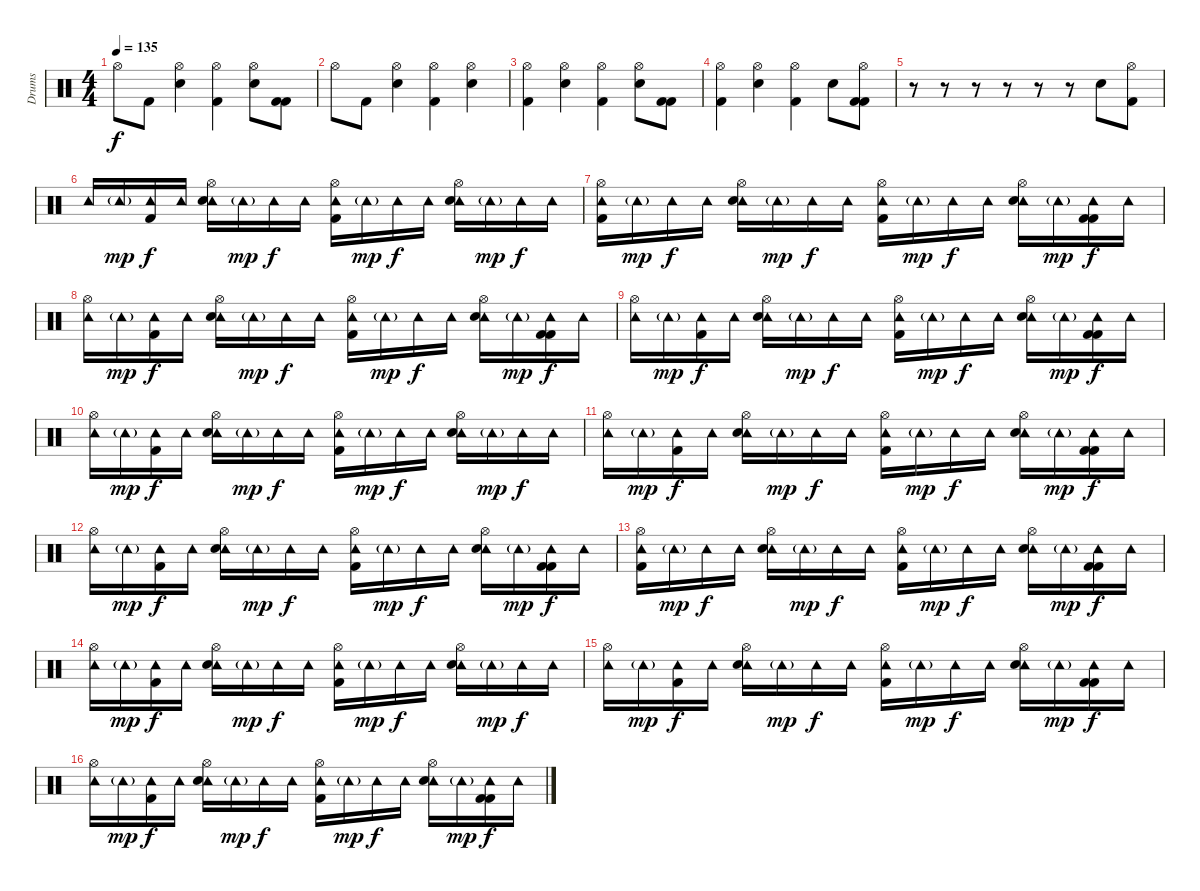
\track ("Drums" "Drums") {instrument percussion}
\staff {score}
\articulation defaults
\ts (4 4)
\tempo 135
\clef neutral
\ks c "Hi-Hat (open)".8{dy f} "Kick (hit) 2".8
("Hi-Hat (open)" "Electric Snare (hit)").4 ("Hi-Hat (open)" "Kick (hit) 2").4 ("Hi-Hat (open)" "Electric Snare (hit)").8 ("Kick (hit) 2" "Kick (hit) 2").8 |
"Hi-Hat (open)".8 "Kick (hit) 2".8 ("Hi-Hat (open)" "Electric Snare (hit)").4 ("Hi-Hat (open)" "Kick (hit) 2").4 ("Hi-Hat (open)" "Electric Snare (hit)").4 |
("Hi-Hat (open)" "Kick (hit) 2").4 ("Hi-Hat (open)" "Electric Snare (hit)").4 ("Hi-Hat (open)" "Kick (hit) 2").4 ("Hi-Hat (open)" "Electric Snare (hit)").8 ("Kick (hit) 2" "Kick (hit) 2").8 |
("Hi-Hat (open)" "Kick (hit) 2").4 ("Hi-Hat (open)" "Electric Snare (hit)").4 ("Hi-Hat (open)" "Kick (hit) 2").4 "Electric Snare (hit)".8 ("Hi-Hat (open)" "Kick (hit) 2" "Kick (hit) 2").8 |
r.8 r.8 r.8 r.8 r.8 r.8 "Electric Snare (hit)".8 ("Hi-Hat (open)" "Kick (hit) 2").8 |
"Tambourine (hit)".16 "Tambourine (hit)"{g}.16{dy mp} ("Tambourine (hit)" "Kick (hit) 2").16{dy f} "Tambourine (hit)".16 ("Hi-Hat (open)" "Tambourine (hit)" "Electric Snare (hit)").16 "Tambourine (hit)"{g}.16{dy mp} "Tambourine (hit)".16{dy f} "Tambourine (hit)".16 ("Hi-Hat (open)" "Tambourine (hit)" "Kick (hit) 2").16 "Tambourine (hit)"{g}.16{dy mp} "Tambourine (hit)".16{dy f} "Tambourine (hit)".16 ("Hi-Hat (open)" "Tambourine (hit)" "Electric Snare (hit)").16 "Tambourine (hit)"{g}.16{dy mp} "Tambourine (hit)".16{dy f} "Tambourine (hit)".16 |
("Hi-Hat (open)" "Tambourine (hit)" "Kick (hit) 2").16 "Tambourine (hit)"{g}.16{dy mp} "Tambourine (hit)".16{dy f} "Tambourine (hit)".16 ("Hi-Hat (open)" "Tambourine (hit)" "Electric Snare (hit)").16 "Tambourine (hit)"{g}.16{dy mp} "Tambourine (hit)".16{dy f} "Tambourine (hit)".16 ("Hi-Hat (open)" "Tambourine (hit)" "Kick (hit) 2").16 "Tambourine (hit)"{g}.16{dy mp} "Tambourine (hit)".16{dy f} "Tambourine (hit)".16 ("Hi-Hat (open)" "Tambourine (hit)" "Electric Snare (hit)").16 "Tambourine (hit)"{g}.16{dy mp} ("Tambourine (hit)" "Kick (hit) 2" "Kick (hit) 2").16{dy f} "Tambourine (hit)".16 |
("Hi-Hat (open)" "Tambourine (hit)").16 "Tambourine (hit)"{g}.16{dy mp} ("Tambourine (hit)" "Kick (hit) 2").16{dy f} "Tambourine (hit)".16 ("Hi-Hat (open)" "Tambourine (hit)" "Electric Snare (hit)").16 "Tambourine (hit)"{g}.16{dy mp} "Tambourine (hit)".16{dy f} "Tambourine (hit)".16 ("Hi-Hat (open)" "Tambourine (hit)" "Kick (hit) 2").16 "Tambourine (hit)"{g}.16{dy mp} "Tambourine (hit)".16{dy f} "Tambourine (hit)".16 ("Hi-Hat (open)" "Tambourine (hit)" "Electric Snare (hit)").16 "Tambourine (hit)"{g}.16{dy mp} ("Tambourine (hit)" "Kick (hit) 2" "Kick (hit) 2").16{dy f} "Tambourine (hit)".16 |
("Hi-Hat (open)" "Tambourine (hit)").16 "Tambourine (hit)"{g}.16{dy mp} ("Tambourine (hit)" "Kick (hit) 2").16{dy f} "Tambourine (hit)".16 ("Hi-Hat (open)" "Tambourine (hit)" "Electric Snare (hit)").16 "Tambourine (hit)"{g}.16{dy mp} "Tambourine (hit)".16{dy f} "Tambourine (hit)".16 ("Hi-Hat (open)" "Tambourine (hit)" "Kick (hit) 2").16 "Tambourine (hit)"{g}.16{dy mp} "Tambourine (hit)".16{dy f} "Tambourine (hit)".16 ("Hi-Hat (open)" "Tambourine (hit)" "Electric Snare (hit)").16 "Tambourine (hit)"{g}.16{dy mp} ("Tambourine (hit)" "Kick (hit) 2" "Kick (hit) 2").16{dy f} "Tambourine (hit)".16 |
("Hi-Hat (open)" "Tambourine (hit)").16 "Tambourine (hit)"{g}.16{dy mp} ("Tambourine (hit)" "Kick (hit) 2").16{dy f} "Tambourine (hit)".16 ("Hi-Hat (open)" "Tambourine (hit)" "Electric Snare (hit)").16 "Tambourine (hit)"{g}.16{dy mp} "Tambourine (hit)".16{dy f} "Tambourine (hit)".16 ("Hi-Hat (open)" "Tambourine (hit)" "Kick (hit) 2").16 "Tambourine (hit)"{g}.16{dy mp} "Tambourine (hit)".16{dy f} "Tambourine (hit)".16 ("Hi-Hat (open)" "Tambourine (hit)" "Electric Snare (hit)").16 "Tambourine (hit)"{g}.16{dy mp} "Tambourine (hit)".16{dy f} "Tambourine (hit)".16 |
("Hi-Hat (open)" "Tambourine (hit)").16 "Tambourine (hit)"{g}.16{dy mp} ("Tambourine (hit)" "Kick (hit) 2").16{dy f} "Tambourine (hit)".16 ("Hi-Hat (open)" "Tambourine (hit)" "Electric Snare (hit)").16 "Tambourine (hit)"{g}.16{dy mp} "Tambourine (hit)".16{dy f} "Tambourine (hit)".16 ("Hi-Hat (open)" "Tambourine (hit)" "Kick (hit) 2").16 "Tambourine (hit)"{g}.16{dy mp} "Tambourine (hit)".16{dy f} "Tambourine (hit)".16 ("Hi-Hat (open)" "Tambourine (hit)" "Electric Snare (hit)").16 "Tambourine (hit)"{g}.16{dy mp} ("Tambourine (hit)" "Kick (hit) 2" "Kick (hit) 2").16{dy f} "Tambourine (hit)".16 |
("Hi-Hat (open)" "Tambourine (hit)").16 "Tambourine (hit)"{g}.16{dy mp} ("Tambourine (hit)" "Kick (hit) 2").16{dy f} "Tambourine (hit)".16 ("Hi-Hat (open)" "Tambourine (hit)" "Electric Snare (hit)").16 "Tambourine (hit)"{g}.16{dy mp} "Tambourine (hit)".16{dy f} "Tambourine (hit)".16 ("Hi-Hat (open)" "Tambourine (hit)" "Kick (hit) 2").16 "Tambourine (hit)"{g}.16{dy mp} "Tambourine (hit)".16{dy f} "Tambourine (hit)".16 ("Hi-Hat (open)" "Tambourine (hit)" "Electric Snare (hit)").16 "Tambourine (hit)"{g}.16{dy mp} ("Tambourine (hit)" "Kick (hit) 2" "Kick (hit) 2").16{dy f} "Tambourine (hit)".16 |
("Hi-Hat (open)" "Tambourine (hit)" "Kick (hit) 2").16 "Tambourine (hit)"{g}.16{dy mp} "Tambourine (hit)".16{dy f} "Tambourine (hit)".16 ("Hi-Hat (open)" "Tambourine (hit)" "Electric Snare (hit)").16 "Tambourine (hit)"{g}.16{dy mp} "Tambourine (hit)".16{dy f} "Tambourine (hit)".16 ("Hi-Hat (open)" "Tambourine (hit)" "Kick (hit) 2").16 "Tambourine (hit)"{g}.16{dy mp} "Tambourine (hit)".16{dy f} "Tambourine (hit)".16 ("Hi-Hat (open)" "Tambourine (hit)" "Electric Snare (hit)").16 "Tambourine (hit)"{g}.16{dy mp} ("Tambourine (hit)" "Kick (hit) 2" "Kick (hit) 2").16{dy f} "Tambourine (hit)".16 |
("Hi-Hat (open)" "Tambourine (hit)").16 "Tambourine (hit)"{g}.16{dy mp} ("Tambourine (hit)" "Kick (hit) 2").16{dy f} "Tambourine (hit)".16 ("Hi-Hat (open)" "Tambourine (hit)" "Electric Snare (hit)").16 "Tambourine (hit)"{g}.16{dy mp} "Tambourine (hit)".16{dy f} "Tambourine (hit)".16 ("Hi-Hat (open)" "Tambourine (hit)" "Kick (hit) 2").16 "Tambourine (hit)"{g}.16{dy mp} "Tambourine (hit)".16{dy f} "Tambourine (hit)".16 ("Hi-Hat (open)" "Tambourine (hit)" "Electric Snare (hit)").16 "Tambourine (hit)"{g}.16{dy mp} "Tambourine (hit)".16{dy f} "Tambourine (hit)".16 |
("Hi-Hat (open)" "Tambourine (hit)").16 "Tambourine (hit)"{g}.16{dy mp} ("Tambourine (hit)" "Kick (hit) 2").16{dy f} "Tambourine (hit)".16 ("Hi-Hat (open)" "Tambourine (hit)" "Electric Snare (hit)").16 "Tambourine (hit)"{g}.16{dy mp} "Tambourine (hit)".16{dy f} "Tambourine (hit)".16 ("Hi-Hat (open)" "Tambourine (hit)" "Kick (hit) 2").16 "Tambourine (hit)"{g}.16{dy mp} "Tambourine (hit)".16{dy f} "Tambourine (hit)".16 ("Hi-Hat (open)" "Tambourine (hit)" "Electric Snare (hit)").16 "Tambourine (hit)"{g}.16{dy mp} ("Tambourine (hit)" "Kick (hit) 2" "Kick (hit) 2").16{dy f} "Tambourine (hit)".16 |
("Hi-Hat (open)" "Tambourine (hit)").16 "Tambourine (hit)"{g}.16{dy mp} ("Tambourine (hit)" "Kick (hit) 2").16{dy f} "Tambourine (hit)".16 ("Hi-Hat (open)" "Tambourine (hit)" "Electric Snare (hit)").16 "Tambourine (hit)"{g}.16{dy mp} "Tambourine (hit)".16{dy f} "Tambourine (hit)".16 ("Hi-Hat (open)" "Tambourine (hit)" "Kick (hit) 2").16 "Tambourine (hit)"{g}.16{dy mp} "Tambourine (hit)".16{dy f} "Tambourine (hit)".16 ("Hi-Hat (open)" "Tambourine (hit)" "Electric Snare (hit)").16 "Tambourine (hit)"{g}.16{dy mp} ("Tambourine (hit)" "Kick (hit) 2" "Kick (hit) 2").16{dy f} "Tambourine (hit)".16
